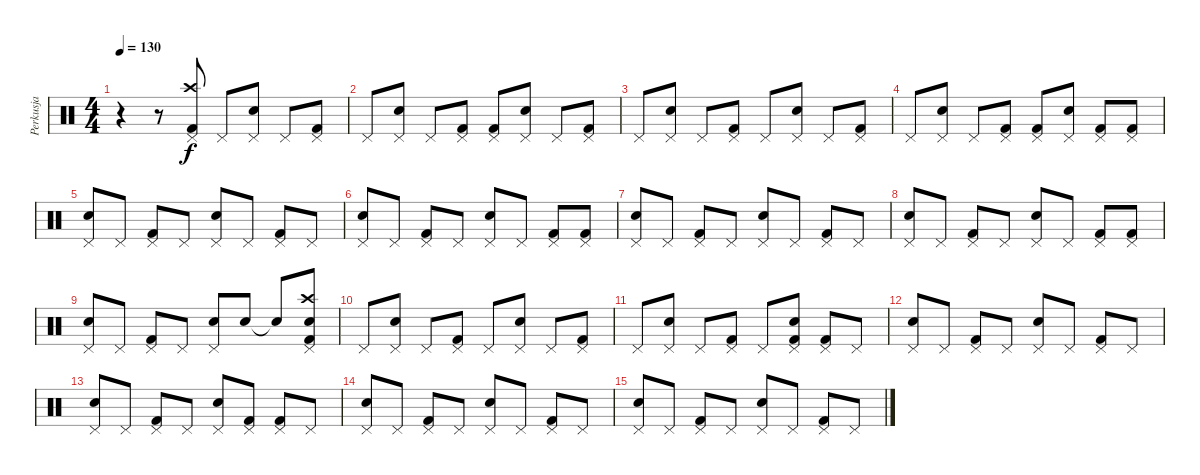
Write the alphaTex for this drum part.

\track ("Perkusja" "Perkusja") {instrument percussion}
\staff {score}
\articulation defaults
\ts (4 4)
\tempo 130
\clef neutral
\ks c
r.4{dy f} r.8 ("Pedal Hi-Hat (hit)" "Crash high (hit)" "Kick (hit) 2").8 "Pedal Hi-Hat (hit)".8 ("Pedal Hi-Hat (hit)" "Snare (hit) 2").8 "Pedal Hi-Hat (hit)".8 ("Pedal Hi-Hat (hit)" "Kick (hit) 2").8 |
"Pedal Hi-Hat (hit)".8 ("Pedal Hi-Hat (hit)" "Snare (hit) 2").8 "Pedal Hi-Hat (hit)".8 ("Pedal Hi-Hat (hit)" "Kick (hit) 2").8 ("Pedal Hi-Hat (hit)" "Kick (hit) 2").8 ("Pedal Hi-Hat (hit)" "Snare (hit) 2").8 "Pedal Hi-Hat (hit)".8 ("Pedal Hi-Hat (hit)" "Kick (hit) 2").8 |
"Pedal Hi-Hat (hit)".8 ("Pedal Hi-Hat (hit)" "Snare (hit) 2").8 "Pedal Hi-Hat (hit)".8 ("Pedal Hi-Hat (hit)" "Kick (hit) 2").8 "Pedal Hi-Hat (hit)".8 ("Pedal Hi-Hat (hit)" "Snare (hit) 2").8 "Pedal Hi-Hat (hit)".8 ("Pedal Hi-Hat (hit)" "Kick (hit) 2").8 |
"Pedal Hi-Hat (hit)".8 ("Pedal Hi-Hat (hit)" "Snare (hit) 2").8 "Pedal Hi-Hat (hit)".8 ("Pedal Hi-Hat (hit)" "Kick (hit) 2").8 ("Pedal Hi-Hat (hit)" "Kick (hit) 2").8 ("Pedal Hi-Hat (hit)" "Snare (hit) 2").8 ("Pedal Hi-Hat (hit)" "Kick (hit) 2").8 ("Pedal Hi-Hat (hit)" "Kick (hit) 2").8 |
("Pedal Hi-Hat (hit)" "Snare (hit) 2").8 "Pedal Hi-Hat (hit)".8 ("Pedal Hi-Hat (hit)" "Kick (hit) 2").8 "Pedal Hi-Hat (hit)".8 ("Pedal Hi-Hat (hit)" "Snare (hit) 2").8 "Pedal Hi-Hat (hit)".8 ("Pedal Hi-Hat (hit)" "Kick (hit) 2").8 "Pedal Hi-Hat (hit)".8 |
("Pedal Hi-Hat (hit)" "Snare (hit) 2").8 "Pedal Hi-Hat (hit)".8 ("Pedal Hi-Hat (hit)" "Kick (hit) 2").8 "Pedal Hi-Hat (hit)".8 ("Pedal Hi-Hat (hit)" "Snare (hit) 2").8 "Pedal Hi-Hat (hit)".8 ("Pedal Hi-Hat (hit)" "Kick (hit) 2").8 ("Pedal Hi-Hat (hit)" "Kick (hit) 2").8 |
("Pedal Hi-Hat (hit)" "Snare (hit) 2").8 "Pedal Hi-Hat (hit)".8 ("Pedal Hi-Hat (hit)" "Kick (hit) 2").8 "Pedal Hi-Hat (hit)".8 ("Pedal Hi-Hat (hit)" "Snare (hit) 2").8 "Pedal Hi-Hat (hit)".8 ("Pedal Hi-Hat (hit)" "Kick (hit) 2").8 "Pedal Hi-Hat (hit)".8 |
("Pedal Hi-Hat (hit)" "Snare (hit) 2").8 "Pedal Hi-Hat (hit)".8 ("Pedal Hi-Hat (hit)" "Kick (hit) 2").8 "Pedal Hi-Hat (hit)".8 ("Pedal Hi-Hat (hit)" "Snare (hit) 2").8 "Pedal Hi-Hat (hit)".8 ("Pedal Hi-Hat (hit)" "Kick (hit) 2").8 ("Pedal Hi-Hat (hit)" "Kick (hit) 2").8 |
("Pedal Hi-Hat (hit)" "Snare (hit) 2").8 "Pedal Hi-Hat (hit)".8 ("Pedal Hi-Hat (hit)" "Kick (hit) 2").8 "Pedal Hi-Hat (hit)".8 ("Pedal Hi-Hat (hit)" "Snare (hit) 2").8 "Snare (hit) 2".8 "Snare (hit)"{t}.8 ("Crash high (hit)" "Pedal Hi-Hat (hit)" "Snare (hit) 2" "Kick (hit) 2").8 |
"Pedal Hi-Hat (hit)".8 ("Pedal Hi-Hat (hit)" "Snare (hit) 2").8 "Pedal Hi-Hat (hit)".8 ("Pedal Hi-Hat (hit)" "Kick (hit) 2").8 "Pedal Hi-Hat (hit)".8 ("Pedal Hi-Hat (hit)" "Snare (hit) 2").8 "Pedal Hi-Hat (hit)".8 ("Pedal Hi-Hat (hit)" "Kick (hit) 2").8 |
"Pedal Hi-Hat (hit)".8 ("Pedal Hi-Hat (hit)" "Snare (hit) 2").8 "Pedal Hi-Hat (hit)".8 ("Pedal Hi-Hat (hit)" "Kick (hit) 2").8 "Pedal Hi-Hat (hit)".8 ("Pedal Hi-Hat (hit)" "Snare (hit) 2" "Kick (hit) 2").8 ("Pedal Hi-Hat (hit)" "Kick (hit) 2").8 "Pedal Hi-Hat (hit)".8 |
("Pedal Hi-Hat (hit)" "Snare (hit) 2").8 "Pedal Hi-Hat (hit)".8 ("Pedal Hi-Hat (hit)" "Kick (hit) 2").8 "Pedal Hi-Hat (hit)".8 ("Pedal Hi-Hat (hit)" "Snare (hit) 2").8 "Pedal Hi-Hat (hit)".8 ("Pedal Hi-Hat (hit)" "Kick (hit) 2").8 "Pedal Hi-Hat (hit)".8 |
("Pedal Hi-Hat (hit)" "Snare (hit) 2").8 "Pedal Hi-Hat (hit)".8 ("Pedal Hi-Hat (hit)" "Kick (hit) 2").8 "Pedal Hi-Hat (hit)".8 ("Pedal Hi-Hat (hit)" "Snare (hit) 2").8 ("Pedal Hi-Hat (hit)" "Kick (hit) 2").8 ("Pedal Hi-Hat (hit)" "Kick (hit) 2").8 "Pedal Hi-Hat (hit)".8 |
("Pedal Hi-Hat (hit)" "Snare (hit) 2").8 "Pedal Hi-Hat (hit)".8 ("Pedal Hi-Hat (hit)" "Kick (hit) 2").8 "Pedal Hi-Hat (hit)".8 ("Pedal Hi-Hat (hit)" "Snare (hit) 2").8 "Pedal Hi-Hat (hit)".8 ("Pedal Hi-Hat (hit)" "Kick (hit) 2").8 "Pedal Hi-Hat (hit)".8 |
("Pedal Hi-Hat (hit)" "Snare (hit) 2").8 "Pedal Hi-Hat (hit)".8 ("Pedal Hi-Hat (hit)" "Kick (hit) 2").8 "Pedal Hi-Hat (hit)".8 ("Pedal Hi-Hat (hit)" "Snare (hit) 2").8 "Pedal Hi-Hat (hit)".8 ("Pedal Hi-Hat (hit)" "Kick (hit) 2").8 "Pedal Hi-Hat (hit)".8
